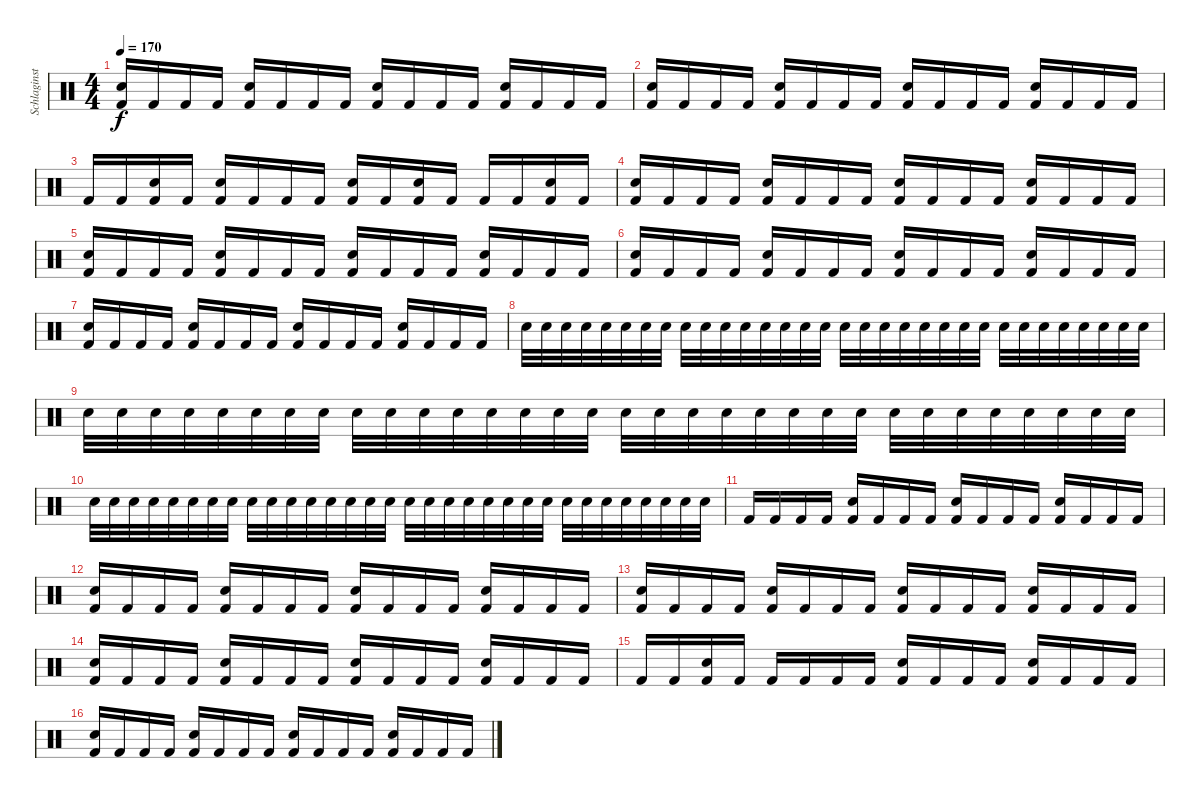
\track ("Schlaginstrumente - Auswahl" "Schlaginst") {instrument percussion}
\staff {score}
\articulation defaults
\ts (4 4)
\tempo 170
\clef neutral
\ks c
("Snare (hit) 2" "Kick (hit) 2").16{dy f} "Kick (hit) 2".16 "Kick (hit) 2".16 "Kick (hit) 2".16 ("Snare (hit) 2" "Kick (hit) 2").16 "Kick (hit) 2".16 "Kick (hit) 2".16 "Kick (hit) 2".16 ("Snare (hit) 2" "Kick (hit) 2").16 "Kick (hit) 2".16 "Kick (hit) 2".16 "Kick (hit) 2".16 ("Snare (hit) 2" "Kick (hit) 2").16 "Kick (hit) 2".16 "Kick (hit) 2".16 "Kick (hit) 2".16 |
("Snare (hit) 2" "Kick (hit) 2").16 "Kick (hit) 2".16 "Kick (hit) 2".16 "Kick (hit) 2".16 ("Snare (hit) 2" "Kick (hit) 2").16 "Kick (hit) 2".16 "Kick (hit) 2".16 "Kick (hit) 2".16 ("Snare (hit) 2" "Kick (hit) 2").16 "Kick (hit) 2".16 "Kick (hit) 2".16 "Kick (hit) 2".16 ("Snare (hit) 2" "Kick (hit) 2").16 "Kick (hit) 2".16 "Kick (hit) 2".16 "Kick (hit) 2".16 |
"Kick (hit) 2".16 "Kick (hit) 2".16 ("Snare (hit) 2" "Kick (hit) 2").16 "Kick (hit) 2".16 ("Snare (hit) 2" "Kick (hit) 2").16 "Kick (hit) 2".16 "Kick (hit) 2".16 "Kick (hit) 2".16 ("Snare (hit) 2" "Kick (hit) 2").16 "Kick (hit) 2".16 ("Snare (hit) 2" "Kick (hit) 2").16 "Kick (hit) 2".16 "Kick (hit) 2".16 "Kick (hit) 2".16 ("Snare (hit) 2" "Kick (hit) 2").16 "Kick (hit) 2".16 |
("Snare (hit) 2" "Kick (hit) 2").16 "Kick (hit) 2".16 "Kick (hit) 2".16 "Kick (hit) 2".16 ("Snare (hit) 2" "Kick (hit) 2").16 "Kick (hit) 2".16 "Kick (hit) 2".16 "Kick (hit) 2".16 ("Snare (hit) 2" "Kick (hit) 2").16 "Kick (hit) 2".16 "Kick (hit) 2".16 "Kick (hit) 2".16 ("Snare (hit) 2" "Kick (hit) 2").16 "Kick (hit) 2".16 "Kick (hit) 2".16 "Kick (hit) 2".16 |
("Snare (hit) 2" "Kick (hit) 2").16 "Kick (hit) 2".16 "Kick (hit) 2".16 "Kick (hit) 2".16 ("Snare (hit) 2" "Kick (hit) 2").16 "Kick (hit) 2".16 "Kick (hit) 2".16 "Kick (hit) 2".16 ("Snare (hit) 2" "Kick (hit) 2").16 "Kick (hit) 2".16 "Kick (hit) 2".16 "Kick (hit) 2".16 ("Snare (hit) 2" "Kick (hit) 2").16 "Kick (hit) 2".16 "Kick (hit) 2".16 "Kick (hit) 2".16 |
("Snare (hit) 2" "Kick (hit) 2").16 "Kick (hit) 2".16 "Kick (hit) 2".16 "Kick (hit) 2".16 ("Snare (hit) 2" "Kick (hit) 2").16 "Kick (hit) 2".16 "Kick (hit) 2".16 "Kick (hit) 2".16 ("Snare (hit) 2" "Kick (hit) 2").16 "Kick (hit) 2".16 "Kick (hit) 2".16 "Kick (hit) 2".16 ("Snare (hit) 2" "Kick (hit) 2").16 "Kick (hit) 2".16 "Kick (hit) 2".16 "Kick (hit) 2".16 |
("Snare (hit) 2" "Kick (hit) 2").16 "Kick (hit) 2".16 "Kick (hit) 2".16 "Kick (hit) 2".16 ("Snare (hit) 2" "Kick (hit) 2").16 "Kick (hit) 2".16 "Kick (hit) 2".16 "Kick (hit) 2".16 ("Snare (hit) 2" "Kick (hit) 2").16 "Kick (hit) 2".16 "Kick (hit) 2".16 "Kick (hit) 2".16 ("Snare (hit) 2" "Kick (hit) 2").16 "Kick (hit) 2".16 "Kick (hit) 2".16 "Kick (hit) 2".16 |
"Snare (hit) 2".32 "Snare (hit) 2".32 "Snare (hit) 2".32 "Snare (hit) 2".32 "Snare (hit) 2".32 "Snare (hit) 2".32 "Snare (hit) 2".32 "Snare (hit) 2".32 "Snare (hit) 2".32 "Snare (hit) 2".32 "Snare (hit) 2".32 "Snare (hit) 2".32 "Snare (hit) 2".32 "Snare (hit) 2".32 "Snare (hit) 2".32 "Snare (hit) 2".32 "Snare (hit) 2".32 "Snare (hit) 2".32 "Snare (hit) 2".32 "Snare (hit) 2".32 "Snare (hit) 2".32 "Snare (hit) 2".32 "Snare (hit) 2".32 "Snare (hit) 2".32 "Snare (hit) 2".32 "Snare (hit) 2".32 "Snare (hit) 2".32 "Snare (hit) 2".32 "Snare (hit) 2".32 "Snare (hit) 2".32 "Snare (hit) 2".32 "Snare (hit) 2".32 |
"Snare (hit) 2".32 "Snare (hit) 2".32 "Snare (hit) 2".32 "Snare (hit) 2".32 "Snare (hit) 2".32 "Snare (hit) 2".32 "Snare (hit) 2".32 "Snare (hit) 2".32 "Snare (hit) 2".32 "Snare (hit) 2".32 "Snare (hit) 2".32 "Snare (hit) 2".32 "Snare (hit) 2".32 "Snare (hit) 2".32 "Snare (hit) 2".32 "Snare (hit) 2".32 "Snare (hit) 2".32 "Snare (hit) 2".32 "Snare (hit) 2".32 "Snare (hit) 2".32 "Snare (hit) 2".32 "Snare (hit) 2".32 "Snare (hit) 2".32 "Snare (hit) 2".32 "Snare (hit) 2".32 "Snare (hit) 2".32 "Snare (hit) 2".32 "Snare (hit) 2".32 "Snare (hit) 2".32 "Snare (hit) 2".32 "Snare (hit) 2".32 "Snare (hit) 2".32 |
"Snare (hit) 2".32 "Snare (hit) 2".32 "Snare (hit) 2".32 "Snare (hit) 2".32 "Snare (hit) 2".32 "Snare (hit) 2".32 "Snare (hit) 2".32 "Snare (hit) 2".32 "Snare (hit) 2".32 "Snare (hit) 2".32 "Snare (hit) 2".32 "Snare (hit) 2".32 "Snare (hit) 2".32 "Snare (hit) 2".32 "Snare (hit) 2".32 "Snare (hit) 2".32 "Snare (hit) 2".32 "Snare (hit) 2".32 "Snare (hit) 2".32 "Snare (hit) 2".32 "Snare (hit) 2".32 "Snare (hit) 2".32 "Snare (hit) 2".32 "Snare (hit) 2".32 "Snare (hit) 2".32 "Snare (hit) 2".32 "Snare (hit) 2".32 "Snare (hit) 2".32 "Snare (hit) 2".32 "Snare (hit) 2".32 "Snare (hit) 2".32 "Snare (hit) 2".32 |
"Kick (hit) 2".16 "Kick (hit) 2".16 "Kick (hit) 2".16 "Kick (hit) 2".16 ("Snare (hit) 2" "Kick (hit) 2").16 "Kick (hit) 2".16 "Kick (hit) 2".16 "Kick (hit) 2".16 ("Snare (hit) 2" "Kick (hit) 2").16 "Kick (hit) 2".16 "Kick (hit) 2".16 "Kick (hit) 2".16 ("Snare (hit) 2" "Kick (hit) 2").16 "Kick (hit) 2".16 "Kick (hit) 2".16 "Kick (hit) 2".16 |
("Snare (hit) 2" "Kick (hit) 2").16 "Kick (hit) 2".16 "Kick (hit) 2".16 "Kick (hit) 2".16 ("Snare (hit) 2" "Kick (hit) 2").16 "Kick (hit) 2".16 "Kick (hit) 2".16 "Kick (hit) 2".16 ("Snare (hit) 2" "Kick (hit) 2").16 "Kick (hit) 2".16 "Kick (hit) 2".16 "Kick (hit) 2".16 ("Snare (hit) 2" "Kick (hit) 2").16 "Kick (hit) 2".16 "Kick (hit) 2".16 "Kick (hit) 2".16 |
("Snare (hit) 2" "Kick (hit) 2").16 "Kick (hit) 2".16 "Kick (hit) 2".16 "Kick (hit) 2".16 ("Snare (hit) 2" "Kick (hit) 2").16 "Kick (hit) 2".16 "Kick (hit) 2".16 "Kick (hit) 2".16 ("Snare (hit) 2" "Kick (hit) 2").16 "Kick (hit) 2".16 "Kick (hit) 2".16 "Kick (hit) 2".16 ("Snare (hit) 2" "Kick (hit) 2").16 "Kick (hit) 2".16 "Kick (hit) 2".16 "Kick (hit) 2".16 |
("Snare (hit) 2" "Kick (hit) 2").16 "Kick (hit) 2".16 "Kick (hit) 2".16 "Kick (hit) 2".16 ("Snare (hit) 2" "Kick (hit) 2").16 "Kick (hit) 2".16 "Kick (hit) 2".16 "Kick (hit) 2".16 ("Snare (hit) 2" "Kick (hit) 2").16 "Kick (hit) 2".16 "Kick (hit) 2".16 "Kick (hit) 2".16 ("Snare (hit) 2" "Kick (hit) 2").16 "Kick (hit) 2".16 "Kick (hit) 2".16 "Kick (hit) 2".16 |
"Kick (hit) 2".16 "Kick (hit) 2".16 ("Snare (hit) 2" "Kick (hit) 2").16 "Kick (hit) 2".16 "Kick (hit) 2".16 "Kick (hit) 2".16 "Kick (hit) 2".16 "Kick (hit) 2".16 ("Snare (hit) 2" "Kick (hit) 2").16 "Kick (hit) 2".16 "Kick (hit) 2".16 "Kick (hit) 2".16 ("Snare (hit) 2" "Kick (hit) 2").16 "Kick (hit) 2".16 "Kick (hit) 2".16 "Kick (hit) 2".16 |
("Snare (hit) 2" "Kick (hit) 2").16 "Kick (hit) 2".16 "Kick (hit) 2".16 "Kick (hit) 2".16 ("Snare (hit) 2" "Kick (hit) 2").16 "Kick (hit) 2".16 "Kick (hit) 2".16 "Kick (hit) 2".16 ("Snare (hit) 2" "Kick (hit) 2").16 "Kick (hit) 2".16 "Kick (hit) 2".16 "Kick (hit) 2".16 ("Snare (hit) 2" "Kick (hit) 2").16 "Kick (hit) 2".16 "Kick (hit) 2".16 "Kick (hit) 2".16
